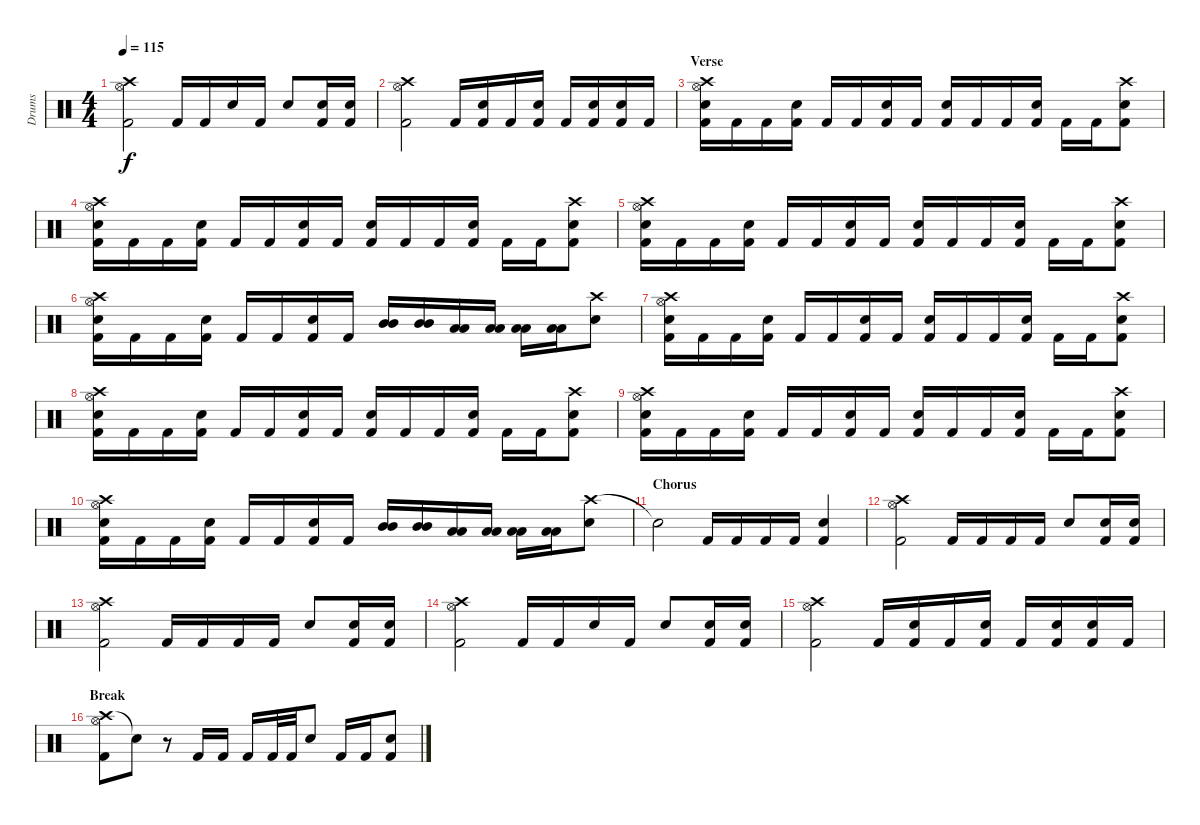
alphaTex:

\track ("Drums" "Drums") {instrument percussion}
\staff {score}
\articulation defaults
\ts (4 4)
\tempo 115
\clef neutral
\ks c
("Crash high (hit)" "Hi-Hat (open)" "Kick (hit) 2").2{dy f} "Kick (hit) 2".16 "Kick (hit) 2".16 "Electric Snare (hit)".16 "Kick (hit) 2".16 "Electric Snare (hit)".8 ("Electric Snare (hit)" "Kick (hit) 2").16 ("Electric Snare (hit)" "Kick (hit) 2").16 |
("Crash high (hit)" "Hi-Hat (open)" "Kick (hit) 2").2 "Kick (hit) 2".16 ("Electric Snare (hit)" "Kick (hit) 2").16 "Kick (hit) 2".16 ("Electric Snare (hit)" "Kick (hit) 2").16 "Kick (hit) 2".16 ("Electric Snare (hit)" "Kick (hit) 2").16 ("Electric Snare (hit)" "Kick (hit) 2").16 "Kick (hit) 2".16 |
\section ("" "Verse")
("Crash high (hit)" "Hi-Hat (open)" "Electric Snare (hit)" "Kick (hit) 2").16 "Kick (hit) 2".16 "Kick (hit) 2".16 ("Electric Snare (hit)" "Kick (hit) 2").16 "Kick (hit) 2".16 "Kick (hit) 2".16 ("Electric Snare (hit)" "Kick (hit) 2").16 "Kick (hit) 2".16 ("Electric Snare (hit)" "Kick (hit) 2").16 "Kick (hit) 2".16 "Kick (hit) 2".16 ("Electric Snare (hit)" "Kick (hit) 2").16 "Kick (hit) 2".16 "Kick (hit) 2".16 ("Crash high (hit)" "Electric Snare (hit)" "Kick (hit) 2").8 |
("Crash high (hit)" "Hi-Hat (open)" "Electric Snare (hit)" "Kick (hit) 2").16 "Kick (hit) 2".16 "Kick (hit) 2".16 ("Electric Snare (hit)" "Kick (hit) 2").16 "Kick (hit) 2".16 "Kick (hit) 2".16 ("Electric Snare (hit)" "Kick (hit) 2").16 "Kick (hit) 2".16 ("Electric Snare (hit)" "Kick (hit) 2").16 "Kick (hit) 2".16 "Kick (hit) 2".16 ("Electric Snare (hit)" "Kick (hit) 2").16 "Kick (hit) 2".16 "Kick (hit) 2".16 ("Crash high (hit)" "Electric Snare (hit)" "Kick (hit) 2").8 |
("Crash high (hit)" "Hi-Hat (open)" "Electric Snare (hit)" "Kick (hit) 2").16 "Kick (hit) 2".16 "Kick (hit) 2".16 ("Electric Snare (hit)" "Kick (hit) 2").16 "Kick (hit) 2".16 "Kick (hit) 2".16 ("Electric Snare (hit)" "Kick (hit) 2").16 "Kick (hit) 2".16 ("Electric Snare (hit)" "Kick (hit) 2").16 "Kick (hit) 2".16 "Kick (hit) 2".16 ("Electric Snare (hit)" "Kick (hit) 2").16 "Kick (hit) 2".16 "Kick (hit) 2".16 ("Crash high (hit)" "Electric Snare (hit)" "Kick (hit) 2").8 |
("Crash high (hit)" "Hi-Hat (open)" "Electric Snare (hit)" "Kick (hit) 2").16 "Kick (hit) 2".16 "Kick (hit) 2".16 ("Electric Snare (hit)" "Kick (hit) 2").16 "Kick (hit) 2".16 "Kick (hit) 2".16 ("Electric Snare (hit)" "Kick (hit) 2").16 "Kick (hit) 2".16 ("Mid Tom (hit)" "Mid Tom (hit)").16 ("Mid Tom (hit)" "Mid Tom (hit)").16 ("Low Tom (hit)" "Low Tom (hit)").16 ("Low Tom (hit)" "Low Tom (hit)").16 ("Low Floor Tom (hit)" "Low Floor Tom (hit)").16 ("Low Floor Tom (hit)" "Low Floor Tom (hit)").16 ("Crash high (hit)" "Electric Snare (hit)").8 |
("Crash high (hit)" "Hi-Hat (open)" "Electric Snare (hit)" "Kick (hit) 2").16 "Kick (hit) 2".16 "Kick (hit) 2".16 ("Electric Snare (hit)" "Kick (hit) 2").16 "Kick (hit) 2".16 "Kick (hit) 2".16 ("Electric Snare (hit)" "Kick (hit) 2").16 "Kick (hit) 2".16 ("Electric Snare (hit)" "Kick (hit) 2").16 "Kick (hit) 2".16 "Kick (hit) 2".16 ("Electric Snare (hit)" "Kick (hit) 2").16 "Kick (hit) 2".16 "Kick (hit) 2".16 ("Crash high (hit)" "Electric Snare (hit)" "Kick (hit) 2").8 |
("Crash high (hit)" "Hi-Hat (open)" "Electric Snare (hit)" "Kick (hit) 2").16 "Kick (hit) 2".16 "Kick (hit) 2".16 ("Electric Snare (hit)" "Kick (hit) 2").16 "Kick (hit) 2".16 "Kick (hit) 2".16 ("Electric Snare (hit)" "Kick (hit) 2").16 "Kick (hit) 2".16 ("Electric Snare (hit)" "Kick (hit) 2").16 "Kick (hit) 2".16 "Kick (hit) 2".16 ("Electric Snare (hit)" "Kick (hit) 2").16 "Kick (hit) 2".16 "Kick (hit) 2".16 ("Crash high (hit)" "Electric Snare (hit)" "Kick (hit) 2").8 |
("Crash high (hit)" "Hi-Hat (open)" "Electric Snare (hit)" "Kick (hit) 2").16 "Kick (hit) 2".16 "Kick (hit) 2".16 ("Electric Snare (hit)" "Kick (hit) 2").16 "Kick (hit) 2".16 "Kick (hit) 2".16 ("Electric Snare (hit)" "Kick (hit) 2").16 "Kick (hit) 2".16 ("Electric Snare (hit)" "Kick (hit) 2").16 "Kick (hit) 2".16 "Kick (hit) 2".16 ("Electric Snare (hit)" "Kick (hit) 2").16 "Kick (hit) 2".16 "Kick (hit) 2".16 ("Crash high (hit)" "Electric Snare (hit)" "Kick (hit) 2").8 |
("Crash high (hit)" "Hi-Hat (open)" "Electric Snare (hit)" "Kick (hit) 2").16 "Kick (hit) 2".16 "Kick (hit) 2".16 ("Electric Snare (hit)" "Kick (hit) 2").16 "Kick (hit) 2".16 "Kick (hit) 2".16 ("Electric Snare (hit)" "Kick (hit) 2").16 "Kick (hit) 2".16 ("Mid Tom (hit)" "Mid Tom (hit)").16 ("Mid Tom (hit)" "Mid Tom (hit)").16 ("Low Tom (hit)" "Low Tom (hit)").16 ("Low Tom (hit)" "Low Tom (hit)").16 ("Low Floor Tom (hit)" "Low Floor Tom (hit)").16 ("Low Floor Tom (hit)" "Low Floor Tom (hit)").16 ("Crash high (hit)" "Electric Snare (hit)").8 |
\section ("" "Chorus")
"Snare (hit)"{t}.2 "Kick (hit) 2".16 "Kick (hit) 2".16 "Kick (hit) 2".16 "Kick (hit) 2".16 ("Electric Snare (hit)" "Kick (hit) 2").4 |
("Crash high (hit)" "Hi-Hat (open)" "Kick (hit) 2").2 "Kick (hit) 2".16 "Kick (hit) 2".16 "Kick (hit) 2".16 "Kick (hit) 2".16 "Electric Snare (hit)".8 ("Electric Snare (hit)" "Kick (hit) 2").16 ("Electric Snare (hit)" "Kick (hit) 2").16 |
("Crash high (hit)" "Hi-Hat (open)" "Kick (hit) 2").2 "Kick (hit) 2".16 "Kick (hit) 2".16 "Kick (hit) 2".16 "Kick (hit) 2".16 "Electric Snare (hit)".8 ("Electric Snare (hit)" "Kick (hit) 2").16 ("Electric Snare (hit)" "Kick (hit) 2").16 |
("Crash high (hit)" "Hi-Hat (open)" "Kick (hit) 2").2 "Kick (hit) 2".16 "Kick (hit) 2".16 "Electric Snare (hit)".16 "Kick (hit) 2".16 "Electric Snare (hit)".8 ("Electric Snare (hit)" "Kick (hit) 2").16 ("Electric Snare (hit)" "Kick (hit) 2").16 |
("Crash high (hit)" "Hi-Hat (open)" "Kick (hit) 2").2 "Kick (hit) 2".16 ("Electric Snare (hit)" "Kick (hit) 2").16 "Kick (hit) 2".16 ("Electric Snare (hit)" "Kick (hit) 2").16 "Kick (hit) 2".16 ("Electric Snare (hit)" "Kick (hit) 2").16 ("Electric Snare (hit)" "Kick (hit) 2").16 "Kick (hit) 2".16 |
\section ("" "Break")
("Crash high (hit)" "Hi-Hat (open)" "Kick (hit) 2").8 "Snare (hit)"{t}.8 r.8 "Kick (hit) 2".16 "Kick (hit) 2".16 "Kick (hit) 2".16 "Kick (hit) 2".32 "Kick (hit) 2".32 "Electric Snare (hit)".8 "Kick (hit) 2".16 "Kick (hit) 2".16 ("Electric Snare (hit)" "Kick (hit) 2").8
